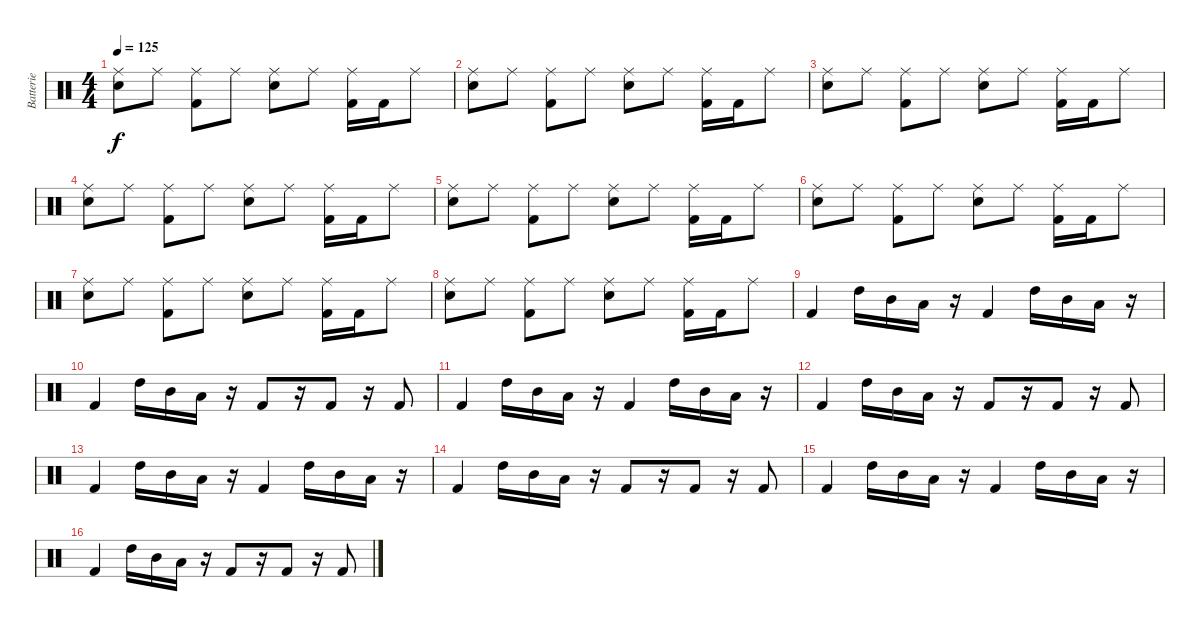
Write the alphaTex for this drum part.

\track ("Batterie" "Batterie") {instrument percussion}
\staff {score}
\articulation defaults
\ts (4 4)
\section ("" "")
\tempo 125
\clef neutral
\ks c
("Ride (middle)" "Snare (hit) 2").8{dy f} "Ride (middle)".8 ("Ride (middle)" "Kick (hit) 2").8 "Ride (middle)".8 ("Ride (middle)" "Snare (hit) 2").8 "Ride (middle)".8 ("Ride (middle)" "Kick (hit) 2").16 "Kick (hit) 2".16 "Ride (middle)".8 |
("Ride (middle)" "Snare (hit) 2").8 "Ride (middle)".8 ("Ride (middle)" "Kick (hit) 2").8 "Ride (middle)".8 ("Ride (middle)" "Snare (hit) 2").8 "Ride (middle)".8 ("Ride (middle)" "Kick (hit) 2").16 "Kick (hit) 2".16 "Ride (middle)".8 |
("Ride (middle)" "Snare (hit) 2").8 "Ride (middle)".8 ("Ride (middle)" "Kick (hit) 2").8 "Ride (middle)".8 ("Ride (middle)" "Snare (hit) 2").8 "Ride (middle)".8 ("Ride (middle)" "Kick (hit) 2").16 "Kick (hit) 2".16 "Ride (middle)".8 |
("Ride (middle)" "Snare (hit) 2").8 "Ride (middle)".8 ("Ride (middle)" "Kick (hit) 2").8 "Ride (middle)".8 ("Ride (middle)" "Snare (hit) 2").8 "Ride (middle)".8 ("Ride (middle)" "Kick (hit) 2").16 "Kick (hit) 2".16 "Ride (middle)".8 |
("Ride (middle)" "Snare (hit) 2").8 "Ride (middle)".8 ("Ride (middle)" "Kick (hit) 2").8 "Ride (middle)".8 ("Ride (middle)" "Snare (hit) 2").8 "Ride (middle)".8 ("Ride (middle)" "Kick (hit) 2").16 "Kick (hit) 2".16 "Ride (middle)".8 |
("Ride (middle)" "Snare (hit) 2").8 "Ride (middle)".8 ("Ride (middle)" "Kick (hit) 2").8 "Ride (middle)".8 ("Ride (middle)" "Snare (hit) 2").8 "Ride (middle)".8 ("Ride (middle)" "Kick (hit) 2").16 "Kick (hit) 2".16 "Ride (middle)".8 |
("Ride (middle)" "Snare (hit) 2").8 "Ride (middle)".8 ("Ride (middle)" "Kick (hit) 2").8 "Ride (middle)".8 ("Ride (middle)" "Snare (hit) 2").8 "Ride (middle)".8 ("Ride (middle)" "Kick (hit) 2").16 "Kick (hit) 2".16 "Ride (middle)".8 |
("Ride (middle)" "Snare (hit) 2").8 "Ride (middle)".8 ("Ride (middle)" "Kick (hit) 2").8 "Ride (middle)".8 ("Ride (middle)" "Snare (hit) 2").8 "Ride (middle)".8 ("Ride (middle)" "Kick (hit) 2").16 "Kick (hit) 2".16 "Ride (middle)".8 |
\section ("" "")
"Kick (hit) 2".4 "High Tom (hit)".16 "Mid Tom (hit)".16 "Low Tom (hit)".16 r.16 "Kick (hit) 2".4 "High Tom (hit)".16 "Mid Tom (hit)".16 "Low Tom (hit)".16 r.16 |
"Kick (hit) 2".4 "High Tom (hit)".16 "Mid Tom (hit)".16 "Low Tom (hit)".16 r.16 "Kick (hit) 2".8 r.16 "Kick (hit) 2".8 r.16 "Kick (hit) 2".8 |
"Kick (hit) 2".4 "High Tom (hit)".16 "Mid Tom (hit)".16 "Low Tom (hit)".16 r.16 "Kick (hit) 2".4 "High Tom (hit)".16 "Mid Tom (hit)".16 "Low Tom (hit)".16 r.16 |
"Kick (hit) 2".4 "High Tom (hit)".16 "Mid Tom (hit)".16 "Low Tom (hit)".16 r.16 "Kick (hit) 2".8 r.16 "Kick (hit) 2".8 r.16 "Kick (hit) 2".8 |
"Kick (hit) 2".4 "High Tom (hit)".16 "Mid Tom (hit)".16 "Low Tom (hit)".16 r.16 "Kick (hit) 2".4 "High Tom (hit)".16 "Mid Tom (hit)".16 "Low Tom (hit)".16 r.16 |
"Kick (hit) 2".4 "High Tom (hit)".16 "Mid Tom (hit)".16 "Low Tom (hit)".16 r.16 "Kick (hit) 2".8 r.16 "Kick (hit) 2".8 r.16 "Kick (hit) 2".8 |
"Kick (hit) 2".4 "High Tom (hit)".16 "Mid Tom (hit)".16 "Low Tom (hit)".16 r.16 "Kick (hit) 2".4 "High Tom (hit)".16 "Mid Tom (hit)".16 "Low Tom (hit)".16 r.16 |
"Kick (hit) 2".4 "High Tom (hit)".16 "Mid Tom (hit)".16 "Low Tom (hit)".16 r.16 "Kick (hit) 2".8 r.16 "Kick (hit) 2".8 r.16 "Kick (hit) 2".8
